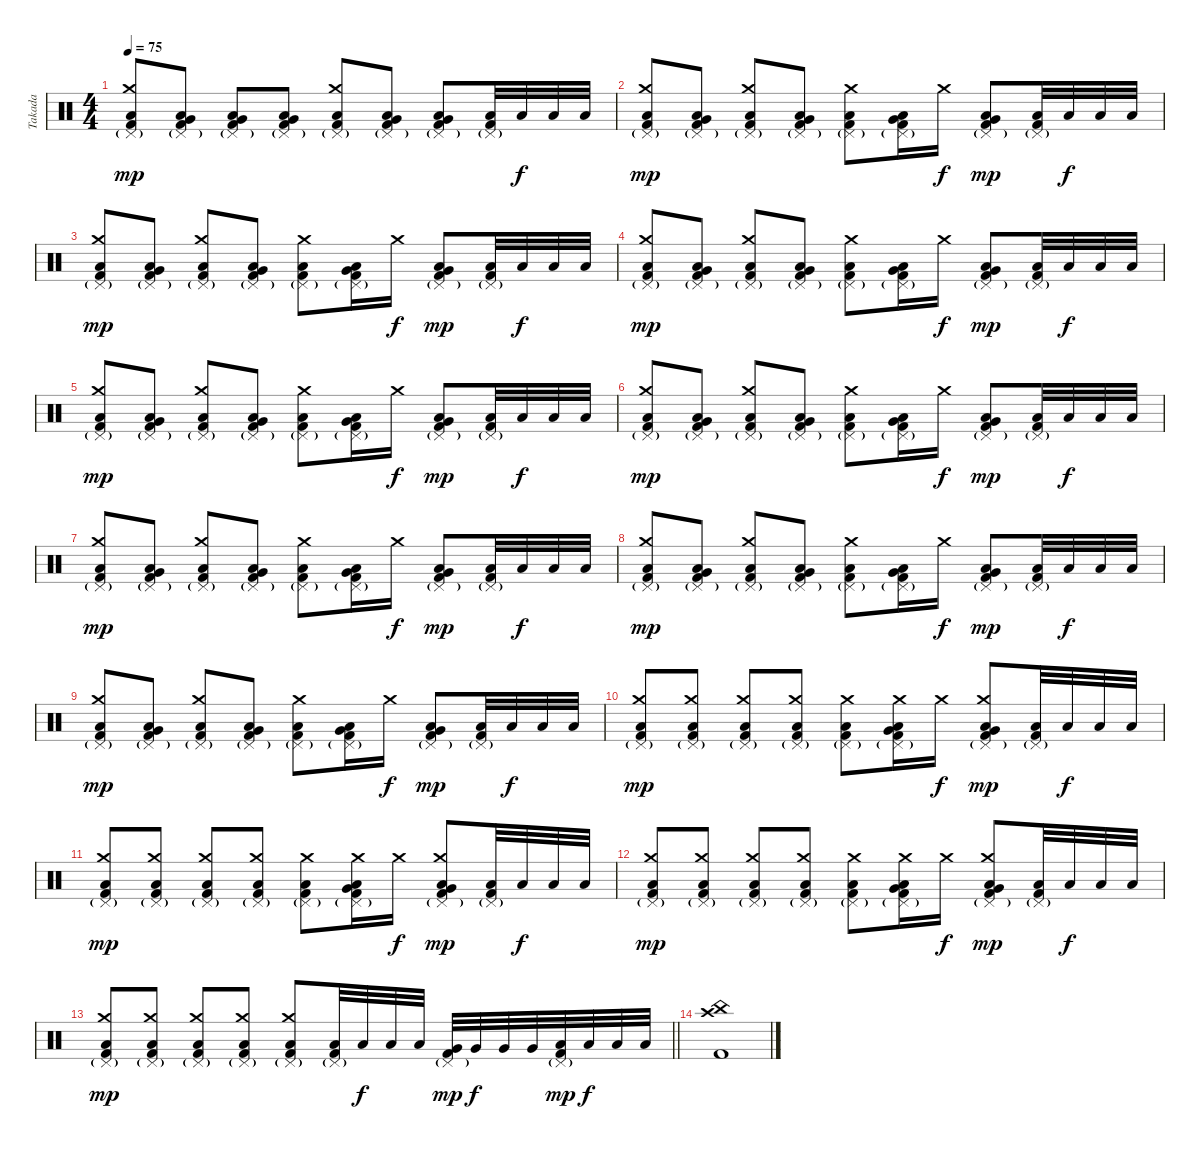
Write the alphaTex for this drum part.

\track ("Takada" "Takada") {instrument percussion}
\staff {score}
\articulation defaults
\ts (4 4)
\tempo 75
\clef neutral
\ks c
("Pedal Hi-Hat (hit)"{g} "Crash medium (hit)" "Low Floor Tom (hit)" "Kick (hit) 2").8{dy mp} ("Pedal Hi-Hat (hit)"{g} "Very Low Tom (hit)" "Low Floor Tom (hit)" "Kick (hit) 2").8 ("Pedal Hi-Hat (hit)"{g} "Very Low Tom (hit)" "Low Floor Tom (hit)" "Kick (hit) 2").8 ("Pedal Hi-Hat (hit)"{g} "Very Low Tom (hit)" "Low Floor Tom (hit)" "Kick (hit) 2").8 ("Pedal Hi-Hat (hit)"{g} "Crash medium (hit)" "Low Floor Tom (hit)" "Kick (hit) 2").8 ("Pedal Hi-Hat (hit)"{g} "Very Low Tom (hit)" "Low Floor Tom (hit)" "Kick (hit) 2").8 ("Pedal Hi-Hat (hit)"{g} "Very Low Tom (hit)" "Low Floor Tom (hit)" "Kick (hit) 2").8 ("Pedal Hi-Hat (hit)"{g} "Low Floor Tom (hit)" "Kick (hit) 2").32 "Low Floor Tom (hit)".32{dy f} "Low Floor Tom (hit)".32 "Low Floor Tom (hit)".32 |
("Pedal Hi-Hat (hit)"{g} "Crash medium (hit)" "Low Floor Tom (hit)" "Kick (hit) 2").8{dy mp} ("Pedal Hi-Hat (hit)"{g} "Very Low Tom (hit)" "Low Floor Tom (hit)" "Kick (hit) 2").8 ("Pedal Hi-Hat (hit)"{g} "Crash medium (hit)" "Low Floor Tom (hit)" "Kick (hit) 2").8 ("Pedal Hi-Hat (hit)"{g} "Very Low Tom (hit)" "Low Floor Tom (hit)" "Kick (hit) 2").8 ("Pedal Hi-Hat (hit)"{g} "Crash medium (hit)" "Low Floor Tom (hit)" "Kick (hit) 2").8 ("Pedal Hi-Hat (hit)"{g} "Very Low Tom (hit)" "Low Floor Tom (hit)" "Kick (hit) 2").16 "Crash medium (hit)".16{dy f} ("Pedal Hi-Hat (hit)"{g} "Very Low Tom (hit)" "Low Floor Tom (hit)" "Kick (hit) 2").8{dy mp} ("Pedal Hi-Hat (hit)"{g} "Low Floor Tom (hit)" "Kick (hit) 2").32 "Low Floor Tom (hit)".32{dy f} "Low Floor Tom (hit)".32 "Low Floor Tom (hit)".32 |
("Pedal Hi-Hat (hit)"{g} "Crash medium (hit)" "Low Floor Tom (hit)" "Kick (hit) 2").8{dy mp} ("Pedal Hi-Hat (hit)"{g} "Very Low Tom (hit)" "Low Floor Tom (hit)" "Kick (hit) 2").8 ("Pedal Hi-Hat (hit)"{g} "Crash medium (hit)" "Low Floor Tom (hit)" "Kick (hit) 2").8 ("Pedal Hi-Hat (hit)"{g} "Very Low Tom (hit)" "Low Floor Tom (hit)" "Kick (hit) 2").8 ("Pedal Hi-Hat (hit)"{g} "Crash medium (hit)" "Low Floor Tom (hit)" "Kick (hit) 2").8 ("Pedal Hi-Hat (hit)"{g} "Very Low Tom (hit)" "Low Floor Tom (hit)" "Kick (hit) 2").16 "Crash medium (hit)".16{dy f} ("Pedal Hi-Hat (hit)"{g} "Very Low Tom (hit)" "Low Floor Tom (hit)" "Kick (hit) 2").8{dy mp} ("Pedal Hi-Hat (hit)"{g} "Low Floor Tom (hit)" "Kick (hit) 2").32 "Low Floor Tom (hit)".32{dy f} "Low Floor Tom (hit)".32 "Low Floor Tom (hit)".32 |
("Pedal Hi-Hat (hit)"{g} "Crash medium (hit)" "Low Floor Tom (hit)" "Kick (hit) 2").8{dy mp} ("Pedal Hi-Hat (hit)"{g} "Very Low Tom (hit)" "Low Floor Tom (hit)" "Kick (hit) 2").8 ("Pedal Hi-Hat (hit)"{g} "Crash medium (hit)" "Low Floor Tom (hit)" "Kick (hit) 2").8 ("Pedal Hi-Hat (hit)"{g} "Very Low Tom (hit)" "Low Floor Tom (hit)" "Kick (hit) 2").8 ("Pedal Hi-Hat (hit)"{g} "Crash medium (hit)" "Low Floor Tom (hit)" "Kick (hit) 2").8 ("Pedal Hi-Hat (hit)"{g} "Very Low Tom (hit)" "Low Floor Tom (hit)" "Kick (hit) 2").16 "Crash medium (hit)".16{dy f} ("Pedal Hi-Hat (hit)"{g} "Very Low Tom (hit)" "Low Floor Tom (hit)" "Kick (hit) 2").8{dy mp} ("Pedal Hi-Hat (hit)"{g} "Low Floor Tom (hit)" "Kick (hit) 2").32 "Low Floor Tom (hit)".32{dy f} "Low Floor Tom (hit)".32 "Low Floor Tom (hit)".32 |
("Pedal Hi-Hat (hit)"{g} "Crash medium (hit)" "Low Floor Tom (hit)" "Kick (hit) 2").8{dy mp} ("Pedal Hi-Hat (hit)"{g} "Very Low Tom (hit)" "Low Floor Tom (hit)" "Kick (hit) 2").8 ("Pedal Hi-Hat (hit)"{g} "Crash medium (hit)" "Low Floor Tom (hit)" "Kick (hit) 2").8 ("Pedal Hi-Hat (hit)"{g} "Very Low Tom (hit)" "Low Floor Tom (hit)" "Kick (hit) 2").8 ("Pedal Hi-Hat (hit)"{g} "Crash medium (hit)" "Low Floor Tom (hit)" "Kick (hit) 2").8 ("Pedal Hi-Hat (hit)"{g} "Very Low Tom (hit)" "Low Floor Tom (hit)" "Kick (hit) 2").16 "Crash medium (hit)".16{dy f} ("Pedal Hi-Hat (hit)"{g} "Very Low Tom (hit)" "Low Floor Tom (hit)" "Kick (hit) 2").8{dy mp} ("Pedal Hi-Hat (hit)"{g} "Low Floor Tom (hit)" "Kick (hit) 2").32 "Low Floor Tom (hit)".32{dy f} "Low Floor Tom (hit)".32 "Low Floor Tom (hit)".32 |
("Pedal Hi-Hat (hit)"{g} "Crash medium (hit)" "Low Floor Tom (hit)" "Kick (hit) 2").8{dy mp} ("Pedal Hi-Hat (hit)"{g} "Very Low Tom (hit)" "Low Floor Tom (hit)" "Kick (hit) 2").8 ("Pedal Hi-Hat (hit)"{g} "Crash medium (hit)" "Low Floor Tom (hit)" "Kick (hit) 2").8 ("Pedal Hi-Hat (hit)"{g} "Very Low Tom (hit)" "Low Floor Tom (hit)" "Kick (hit) 2").8 ("Pedal Hi-Hat (hit)"{g} "Crash medium (hit)" "Low Floor Tom (hit)" "Kick (hit) 2").8 ("Pedal Hi-Hat (hit)"{g} "Very Low Tom (hit)" "Low Floor Tom (hit)" "Kick (hit) 2").16 "Crash medium (hit)".16{dy f} ("Pedal Hi-Hat (hit)"{g} "Very Low Tom (hit)" "Low Floor Tom (hit)" "Kick (hit) 2").8{dy mp} ("Pedal Hi-Hat (hit)"{g} "Low Floor Tom (hit)" "Kick (hit) 2").32 "Low Floor Tom (hit)".32{dy f} "Low Floor Tom (hit)".32 "Low Floor Tom (hit)".32 |
("Pedal Hi-Hat (hit)"{g} "Crash medium (hit)" "Low Floor Tom (hit)" "Kick (hit) 2").8{dy mp} ("Pedal Hi-Hat (hit)"{g} "Very Low Tom (hit)" "Low Floor Tom (hit)" "Kick (hit) 2").8 ("Pedal Hi-Hat (hit)"{g} "Crash medium (hit)" "Low Floor Tom (hit)" "Kick (hit) 2").8 ("Pedal Hi-Hat (hit)"{g} "Very Low Tom (hit)" "Low Floor Tom (hit)" "Kick (hit) 2").8 ("Pedal Hi-Hat (hit)"{g} "Crash medium (hit)" "Low Floor Tom (hit)" "Kick (hit) 2").8 ("Pedal Hi-Hat (hit)"{g} "Very Low Tom (hit)" "Low Floor Tom (hit)" "Kick (hit) 2").16 "Crash medium (hit)".16{dy f} ("Pedal Hi-Hat (hit)"{g} "Very Low Tom (hit)" "Low Floor Tom (hit)" "Kick (hit) 2").8{dy mp} ("Pedal Hi-Hat (hit)"{g} "Low Floor Tom (hit)" "Kick (hit) 2").32 "Low Floor Tom (hit)".32{dy f} "Low Floor Tom (hit)".32 "Low Floor Tom (hit)".32 |
("Pedal Hi-Hat (hit)"{g} "Crash medium (hit)" "Low Floor Tom (hit)" "Kick (hit) 2").8{dy mp} ("Pedal Hi-Hat (hit)"{g} "Very Low Tom (hit)" "Low Floor Tom (hit)" "Kick (hit) 2").8 ("Pedal Hi-Hat (hit)"{g} "Crash medium (hit)" "Low Floor Tom (hit)" "Kick (hit) 2").8 ("Pedal Hi-Hat (hit)"{g} "Very Low Tom (hit)" "Low Floor Tom (hit)" "Kick (hit) 2").8 ("Pedal Hi-Hat (hit)"{g} "Crash medium (hit)" "Low Floor Tom (hit)" "Kick (hit) 2").8 ("Pedal Hi-Hat (hit)"{g} "Very Low Tom (hit)" "Low Floor Tom (hit)" "Kick (hit) 2").16 "Crash medium (hit)".16{dy f} ("Pedal Hi-Hat (hit)"{g} "Very Low Tom (hit)" "Low Floor Tom (hit)" "Kick (hit) 2").8{dy mp} ("Pedal Hi-Hat (hit)"{g} "Low Floor Tom (hit)" "Kick (hit) 2").32 "Low Floor Tom (hit)".32{dy f} "Low Floor Tom (hit)".32 "Low Floor Tom (hit)".32 |
("Pedal Hi-Hat (hit)"{g} "Crash medium (hit)" "Low Floor Tom (hit)" "Kick (hit) 2").8{dy mp} ("Pedal Hi-Hat (hit)"{g} "Very Low Tom (hit)" "Low Floor Tom (hit)" "Kick (hit) 2").8 ("Pedal Hi-Hat (hit)"{g} "Crash medium (hit)" "Low Floor Tom (hit)" "Kick (hit) 2").8 ("Pedal Hi-Hat (hit)"{g} "Very Low Tom (hit)" "Low Floor Tom (hit)" "Kick (hit) 2").8 ("Pedal Hi-Hat (hit)"{g} "Crash medium (hit)" "Low Floor Tom (hit)" "Kick (hit) 2").8 ("Pedal Hi-Hat (hit)"{g} "Very Low Tom (hit)" "Low Floor Tom (hit)" "Kick (hit) 2").16 "Crash medium (hit)".16{dy f} ("Pedal Hi-Hat (hit)"{g} "Very Low Tom (hit)" "Low Floor Tom (hit)" "Kick (hit) 2").8{dy mp} ("Pedal Hi-Hat (hit)"{g} "Low Floor Tom (hit)" "Kick (hit) 2").32 "Low Floor Tom (hit)".32{dy f} "Low Floor Tom (hit)".32 "Low Floor Tom (hit)".32 |
("Pedal Hi-Hat (hit)"{g} "Crash medium (hit)" "Low Floor Tom (hit)" "Kick (hit) 2").8{dy mp} ("Pedal Hi-Hat (hit)"{g} "Crash medium (hit)" "Low Floor Tom (hit)" "Kick (hit) 2").8 ("Pedal Hi-Hat (hit)"{g} "Crash medium (hit)" "Low Floor Tom (hit)" "Kick (hit) 2").8 ("Pedal Hi-Hat (hit)"{g} "Crash medium (hit)" "Low Floor Tom (hit)" "Kick (hit) 2").8 ("Pedal Hi-Hat (hit)"{g} "Crash medium (hit)" "Low Floor Tom (hit)" "Kick (hit) 2").8 ("Pedal Hi-Hat (hit)"{g} "Crash medium (hit)" "Very Low Tom (hit)" "Low Floor Tom (hit)" "Kick (hit) 2").16 "Crash medium (hit)".16{dy f} ("Pedal Hi-Hat (hit)"{g} "Crash medium (hit)" "Very Low Tom (hit)" "Low Floor Tom (hit)" "Kick (hit) 2").8{dy mp} ("Pedal Hi-Hat (hit)"{g} "Low Floor Tom (hit)" "Kick (hit) 2").32 "Low Floor Tom (hit)".32{dy f} "Low Floor Tom (hit)".32 "Low Floor Tom (hit)".32 |
("Pedal Hi-Hat (hit)"{g} "Crash medium (hit)" "Low Floor Tom (hit)" "Kick (hit) 2").8{dy mp} ("Pedal Hi-Hat (hit)"{g} "Crash medium (hit)" "Low Floor Tom (hit)" "Kick (hit) 2").8 ("Pedal Hi-Hat (hit)"{g} "Crash medium (hit)" "Low Floor Tom (hit)" "Kick (hit) 2").8 ("Pedal Hi-Hat (hit)"{g} "Crash medium (hit)" "Low Floor Tom (hit)" "Kick (hit) 2").8 ("Pedal Hi-Hat (hit)"{g} "Crash medium (hit)" "Low Floor Tom (hit)" "Kick (hit) 2").8 ("Pedal Hi-Hat (hit)"{g} "Crash medium (hit)" "Very Low Tom (hit)" "Low Floor Tom (hit)" "Kick (hit) 2").16 "Crash medium (hit)".16{dy f} ("Pedal Hi-Hat (hit)"{g} "Crash medium (hit)" "Very Low Tom (hit)" "Low Floor Tom (hit)" "Kick (hit) 2").8{dy mp} ("Pedal Hi-Hat (hit)"{g} "Low Floor Tom (hit)" "Kick (hit) 2").32 "Low Floor Tom (hit)".32{dy f} "Low Floor Tom (hit)".32 "Low Floor Tom (hit)".32 |
("Pedal Hi-Hat (hit)"{g} "Crash medium (hit)" "Low Floor Tom (hit)" "Kick (hit) 2").8{dy mp} ("Pedal Hi-Hat (hit)"{g} "Crash medium (hit)" "Low Floor Tom (hit)" "Kick (hit) 2").8 ("Pedal Hi-Hat (hit)"{g} "Crash medium (hit)" "Low Floor Tom (hit)" "Kick (hit) 2").8 ("Pedal Hi-Hat (hit)"{g} "Crash medium (hit)" "Low Floor Tom (hit)" "Kick (hit) 2").8 ("Pedal Hi-Hat (hit)"{g} "Crash medium (hit)" "Low Floor Tom (hit)" "Kick (hit) 2").8 ("Pedal Hi-Hat (hit)"{g} "Crash medium (hit)" "Very Low Tom (hit)" "Low Floor Tom (hit)" "Kick (hit) 2").16 "Crash medium (hit)".16{dy f} ("Pedal Hi-Hat (hit)"{g} "Crash medium (hit)" "Very Low Tom (hit)" "Low Floor Tom (hit)" "Kick (hit) 2").8{dy mp} ("Pedal Hi-Hat (hit)"{g} "Low Floor Tom (hit)" "Kick (hit) 2").32 "Low Floor Tom (hit)".32{dy f} "Low Floor Tom (hit)".32 "Low Floor Tom (hit)".32 |
\barLineRight lightlight
("Pedal Hi-Hat (hit)"{g} "Crash medium (hit)" "Low Floor Tom (hit)" "Kick (hit) 2").8{dy mp} ("Pedal Hi-Hat (hit)"{g} "Crash medium (hit)" "Low Floor Tom (hit)" "Kick (hit) 2").8 ("Pedal Hi-Hat (hit)"{g} "Crash medium (hit)" "Low Floor Tom (hit)" "Kick (hit) 2").8 ("Pedal Hi-Hat (hit)"{g} "Crash medium (hit)" "Low Floor Tom (hit)" "Kick (hit) 2").8 ("Pedal Hi-Hat (hit)"{g} "Crash medium (hit)" "Low Floor Tom (hit)" "Kick (hit) 2").8 ("Pedal Hi-Hat (hit)"{g} "Low Tom (hit)" "Kick (hit) 2").32 "Low Tom (hit)".32{dy f} "Low Tom (hit)".32 "Low Tom (hit)".32 ("Pedal Hi-Hat (hit)"{g} "Very Low Tom (hit)" "Kick (hit) 2").32{dy mp} "Very Low Tom (hit)".32{dy f} "Very Low Tom (hit)".32 "Very Low Tom (hit)".32 ("Pedal Hi-Hat (hit)"{g} "Low Floor Tom (hit)" "Kick (hit) 2").32{dy mp} "Low Floor Tom (hit)".32{dy f} "Low Floor Tom (hit)".32 "Low Floor Tom (hit)".32 |
\section ("" "")
("China (hit)" "Crash high (hit)" "Kick (hit) 2").1
